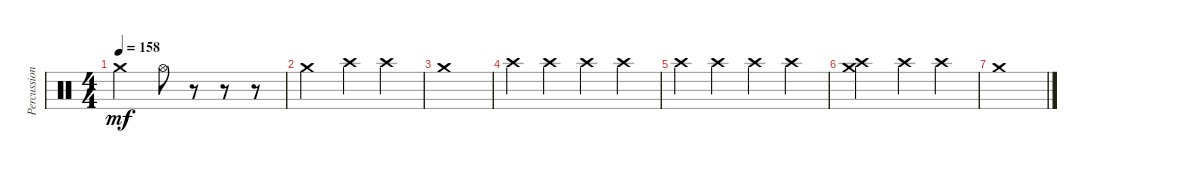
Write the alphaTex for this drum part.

\track ("Percussion2" "Percussion") {instrument percussion}
\staff {score}
\articulation defaults
\ts (4 4)
\tempo 158
\clef neutral
\ks c "Crash medium (hit)".2{dy mf} "Hi-Hat (open)".8
r.8 r.8 r.8 |
"Crash medium (hit)".2 "Crash high (hit)".4 "Crash high (hit)".4 |
"Crash medium (hit)".1 |
"Crash high (hit)".4 "Crash high (hit)".4 "Crash high (hit)".4 "Crash high (hit)".4 |
"Crash high (hit)".4 "Crash high (hit)".4 "Crash high (hit)".4 "Crash high (hit)".4 |
("Crash medium (hit)" "Crash high (hit)").2 "Crash high (hit)".4 "Crash high (hit)".4 |
"Crash medium (hit)".1
